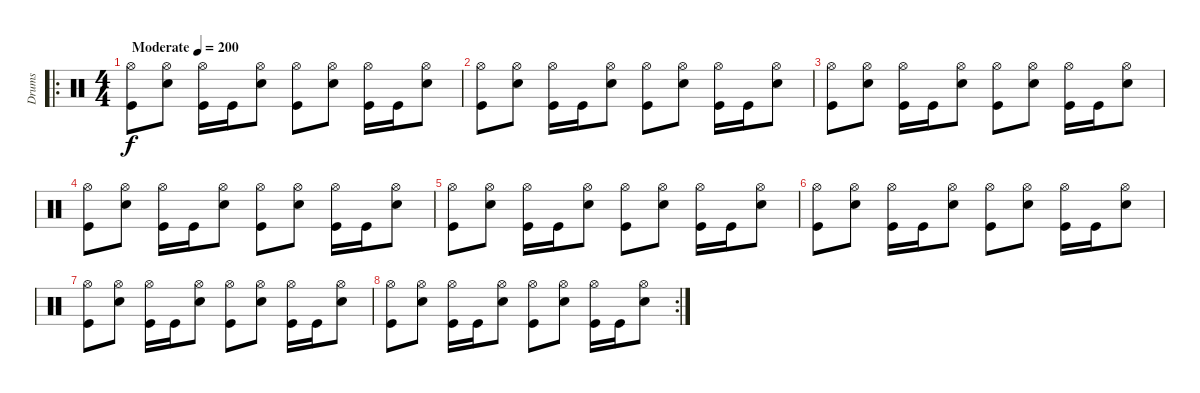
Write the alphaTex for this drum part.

\track ("Drums" "Drums") {instrument percussion}
\staff {score}
\articulation defaults
\ro
\ts (4 4)
\tempo (200 "Moderate")
\clef neutral
\ks c
("Hi-Hat (open)" "Kick (hit)").8{dy f} ("Hi-Hat (open)" "Snare (hit) 2").8 ("Hi-Hat (open)" "Kick (hit)").16 "Kick (hit)".16 ("Hi-Hat (open)" "Snare (hit) 2").8 ("Hi-Hat (open)" "Kick (hit)").8 ("Hi-Hat (open)" "Snare (hit) 2").8 ("Hi-Hat (open)" "Kick (hit)").16 "Kick (hit)".16 ("Hi-Hat (open)" "Snare (hit) 2").8 |
("Hi-Hat (open)" "Kick (hit)").8 ("Hi-Hat (open)" "Snare (hit) 2").8 ("Hi-Hat (open)" "Kick (hit)").16 "Kick (hit)".16 ("Hi-Hat (open)" "Snare (hit) 2").8 ("Hi-Hat (open)" "Kick (hit)").8 ("Hi-Hat (open)" "Snare (hit) 2").8 ("Hi-Hat (open)" "Kick (hit)").16 "Kick (hit)".16 ("Hi-Hat (open)" "Snare (hit) 2").8 |
("Hi-Hat (open)" "Kick (hit)").8 ("Hi-Hat (open)" "Snare (hit) 2").8 ("Hi-Hat (open)" "Kick (hit)").16 "Kick (hit)".16 ("Hi-Hat (open)" "Snare (hit) 2").8 ("Hi-Hat (open)" "Kick (hit)").8 ("Hi-Hat (open)" "Snare (hit) 2").8 ("Hi-Hat (open)" "Kick (hit)").16 "Kick (hit)".16 ("Hi-Hat (open)" "Snare (hit) 2").8 |
("Hi-Hat (open)" "Kick (hit)").8 ("Hi-Hat (open)" "Snare (hit) 2").8 ("Hi-Hat (open)" "Kick (hit)").16 "Kick (hit)".16 ("Hi-Hat (open)" "Snare (hit) 2").8 ("Hi-Hat (open)" "Kick (hit)").8 ("Hi-Hat (open)" "Snare (hit) 2").8 ("Hi-Hat (open)" "Kick (hit)").16 "Kick (hit)".16 ("Hi-Hat (open)" "Snare (hit) 2").8 |
("Hi-Hat (open)" "Kick (hit)").8 ("Hi-Hat (open)" "Snare (hit) 2").8 ("Hi-Hat (open)" "Kick (hit)").16 "Kick (hit)".16 ("Hi-Hat (open)" "Snare (hit) 2").8 ("Hi-Hat (open)" "Kick (hit)").8 ("Hi-Hat (open)" "Snare (hit) 2").8 ("Hi-Hat (open)" "Kick (hit)").16 "Kick (hit)".16 ("Hi-Hat (open)" "Snare (hit) 2").8 |
("Hi-Hat (open)" "Kick (hit)").8 ("Hi-Hat (open)" "Snare (hit) 2").8 ("Hi-Hat (open)" "Kick (hit)").16 "Kick (hit)".16 ("Hi-Hat (open)" "Snare (hit) 2").8 ("Hi-Hat (open)" "Kick (hit)").8 ("Hi-Hat (open)" "Snare (hit) 2").8 ("Hi-Hat (open)" "Kick (hit)").16 "Kick (hit)".16 ("Hi-Hat (open)" "Snare (hit) 2").8 |
("Hi-Hat (open)" "Kick (hit)").8 ("Hi-Hat (open)" "Snare (hit) 2").8 ("Hi-Hat (open)" "Kick (hit)").16 "Kick (hit)".16 ("Hi-Hat (open)" "Snare (hit) 2").8 ("Hi-Hat (open)" "Kick (hit)").8 ("Hi-Hat (open)" "Snare (hit) 2").8 ("Hi-Hat (open)" "Kick (hit)").16 "Kick (hit)".16 ("Hi-Hat (open)" "Snare (hit) 2").8 |
\rc 2
("Hi-Hat (open)" "Kick (hit)").8 ("Hi-Hat (open)" "Snare (hit) 2").8 ("Hi-Hat (open)" "Kick (hit)").16 "Kick (hit)".16 ("Hi-Hat (open)" "Snare (hit) 2").8 ("Hi-Hat (open)" "Kick (hit)").8 ("Hi-Hat (open)" "Snare (hit) 2").8 ("Hi-Hat (open)" "Kick (hit)").16 "Kick (hit)".16 ("Hi-Hat (open)" "Snare (hit) 2").8
